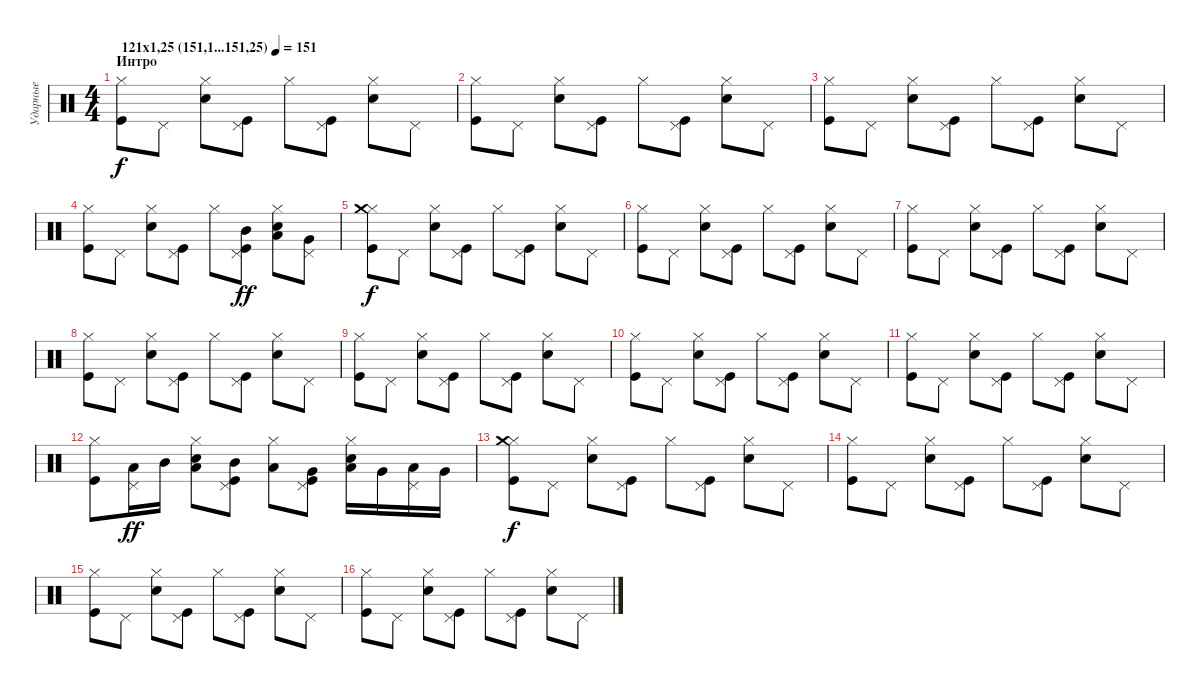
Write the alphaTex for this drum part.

\track ("Ударные" "Ударные") {instrument percussion}
\staff {score}
\articulation defaults
\ts (4 4)
\section ("" "Интро")
\tempo (151 "121x1,25 (151,1...151,25)")
\clef neutral
\ks c
("Hi-Hat (closed)" "Kick (hit)").8{dy f} "Pedal Hi-Hat (hit)".8 ("Hi-Hat (closed)" "Snare (hit) 2").8 ("Pedal Hi-Hat (hit)" "Kick (hit)").8 "Hi-Hat (closed)".8 ("Pedal Hi-Hat (hit)" "Kick (hit)").8 ("Hi-Hat (closed)" "Snare (hit) 2").8 "Pedal Hi-Hat (hit)".8 |
("Hi-Hat (closed)" "Kick (hit)").8 "Pedal Hi-Hat (hit)".8 ("Hi-Hat (closed)" "Snare (hit) 2").8 ("Pedal Hi-Hat (hit)" "Kick (hit)").8 "Hi-Hat (closed)".8 ("Pedal Hi-Hat (hit)" "Kick (hit)").8 ("Hi-Hat (closed)" "Snare (hit) 2").8 "Pedal Hi-Hat (hit)".8 |
("Hi-Hat (closed)" "Kick (hit)").8 "Pedal Hi-Hat (hit)".8 ("Hi-Hat (closed)" "Snare (hit) 2").8 ("Pedal Hi-Hat (hit)" "Kick (hit)").8 "Hi-Hat (closed)".8 ("Pedal Hi-Hat (hit)" "Kick (hit)").8 ("Hi-Hat (closed)" "Snare (hit) 2").8 "Pedal Hi-Hat (hit)".8 |
("Hi-Hat (closed)" "Kick (hit)").8 "Pedal Hi-Hat (hit)".8 ("Hi-Hat (closed)" "Snare (hit) 2").8 ("Pedal Hi-Hat (hit)" "Kick (hit)").8 "Hi-Hat (closed)".8 ("Pedal Hi-Hat (hit)" "Kick (hit)" "Mid Tom (hit)").8{dy ff} ("Hi-Hat (closed)" "Snare (hit) 2" "Low Tom (hit)").8 ("Pedal Hi-Hat (hit)" "Very Low Tom (hit)").8 |
("Hi-Hat (closed)" "Kick (hit)" "Crash medium (hit)").8{dy f} "Pedal Hi-Hat (hit)".8 ("Hi-Hat (closed)" "Snare (hit) 2").8 ("Pedal Hi-Hat (hit)" "Kick (hit)").8 "Hi-Hat (closed)".8 ("Pedal Hi-Hat (hit)" "Kick (hit)").8 ("Hi-Hat (closed)" "Snare (hit) 2").8 "Pedal Hi-Hat (hit)".8 |
("Hi-Hat (closed)" "Kick (hit)").8 "Pedal Hi-Hat (hit)".8 ("Hi-Hat (closed)" "Snare (hit) 2").8 ("Pedal Hi-Hat (hit)" "Kick (hit)").8 "Hi-Hat (closed)".8 ("Pedal Hi-Hat (hit)" "Kick (hit)").8 ("Hi-Hat (closed)" "Snare (hit) 2").8 "Pedal Hi-Hat (hit)".8 |
("Hi-Hat (closed)" "Kick (hit)").8 "Pedal Hi-Hat (hit)".8 ("Hi-Hat (closed)" "Snare (hit) 2").8 ("Pedal Hi-Hat (hit)" "Kick (hit)").8 "Hi-Hat (closed)".8 ("Pedal Hi-Hat (hit)" "Kick (hit)").8 ("Hi-Hat (closed)" "Snare (hit) 2").8 "Pedal Hi-Hat (hit)".8 |
("Hi-Hat (closed)" "Kick (hit)").8 "Pedal Hi-Hat (hit)".8 ("Hi-Hat (closed)" "Snare (hit) 2").8 ("Pedal Hi-Hat (hit)" "Kick (hit)").8 "Hi-Hat (closed)".8 ("Pedal Hi-Hat (hit)" "Kick (hit)").8 ("Hi-Hat (closed)" "Snare (hit) 2").8 "Pedal Hi-Hat (hit)".8 |
("Hi-Hat (closed)" "Kick (hit)").8 "Pedal Hi-Hat (hit)".8 ("Hi-Hat (closed)" "Snare (hit) 2").8 ("Pedal Hi-Hat (hit)" "Kick (hit)").8 "Hi-Hat (closed)".8 ("Pedal Hi-Hat (hit)" "Kick (hit)").8 ("Hi-Hat (closed)" "Snare (hit) 2").8 "Pedal Hi-Hat (hit)".8 |
("Hi-Hat (closed)" "Kick (hit)").8 "Pedal Hi-Hat (hit)".8 ("Hi-Hat (closed)" "Snare (hit) 2").8 ("Pedal Hi-Hat (hit)" "Kick (hit)").8 "Hi-Hat (closed)".8 ("Pedal Hi-Hat (hit)" "Kick (hit)").8 ("Hi-Hat (closed)" "Snare (hit) 2").8 "Pedal Hi-Hat (hit)".8 |
("Hi-Hat (closed)" "Kick (hit)").8 "Pedal Hi-Hat (hit)".8 ("Hi-Hat (closed)" "Snare (hit) 2").8 ("Pedal Hi-Hat (hit)" "Kick (hit)").8 "Hi-Hat (closed)".8 ("Pedal Hi-Hat (hit)" "Kick (hit)").8 ("Hi-Hat (closed)" "Snare (hit) 2").8 "Pedal Hi-Hat (hit)".8 |
("Hi-Hat (closed)" "Kick (hit)").8 ("Pedal Hi-Hat (hit)" "Low Tom (hit)").16{dy ff} "Mid Tom (hit)".16 ("Hi-Hat (closed)" "Snare (hit) 2" "Low Tom (hit)").8 ("Pedal Hi-Hat (hit)" "Kick (hit)" "Mid Tom (hit)").8 ("Hi-Hat (closed)" "Low Tom (hit)").8 ("Pedal Hi-Hat (hit)" "Kick (hit)" "Very Low Tom (hit)").8 ("Hi-Hat (closed)" "Snare (hit) 2" "Low Floor Tom (hit)").16 "Very Low Tom (hit)".16 ("Pedal Hi-Hat (hit)" "Low Floor Tom (hit)").16 "Very Low Tom (hit)".16 |
("Hi-Hat (closed)" "Kick (hit)" "Crash medium (hit)").8{dy f} "Pedal Hi-Hat (hit)".8 ("Hi-Hat (closed)" "Snare (hit) 2").8 ("Pedal Hi-Hat (hit)" "Kick (hit)").8 "Hi-Hat (closed)".8 ("Pedal Hi-Hat (hit)" "Kick (hit)").8 ("Hi-Hat (closed)" "Snare (hit) 2").8 "Pedal Hi-Hat (hit)".8 |
("Hi-Hat (closed)" "Kick (hit)").8 "Pedal Hi-Hat (hit)".8 ("Hi-Hat (closed)" "Snare (hit) 2").8 ("Pedal Hi-Hat (hit)" "Kick (hit)").8 "Hi-Hat (closed)".8 ("Pedal Hi-Hat (hit)" "Kick (hit)").8 ("Hi-Hat (closed)" "Snare (hit) 2").8 "Pedal Hi-Hat (hit)".8 |
("Hi-Hat (closed)" "Kick (hit)").8 "Pedal Hi-Hat (hit)".8 ("Hi-Hat (closed)" "Snare (hit) 2").8 ("Pedal Hi-Hat (hit)" "Kick (hit)").8 "Hi-Hat (closed)".8 ("Pedal Hi-Hat (hit)" "Kick (hit)").8 ("Hi-Hat (closed)" "Snare (hit) 2").8 "Pedal Hi-Hat (hit)".8 |
("Hi-Hat (closed)" "Kick (hit)").8 "Pedal Hi-Hat (hit)".8 ("Hi-Hat (closed)" "Snare (hit) 2").8 ("Pedal Hi-Hat (hit)" "Kick (hit)").8 "Hi-Hat (closed)".8 ("Pedal Hi-Hat (hit)" "Kick (hit)").8 ("Hi-Hat (closed)" "Snare (hit) 2").8 "Pedal Hi-Hat (hit)".8
